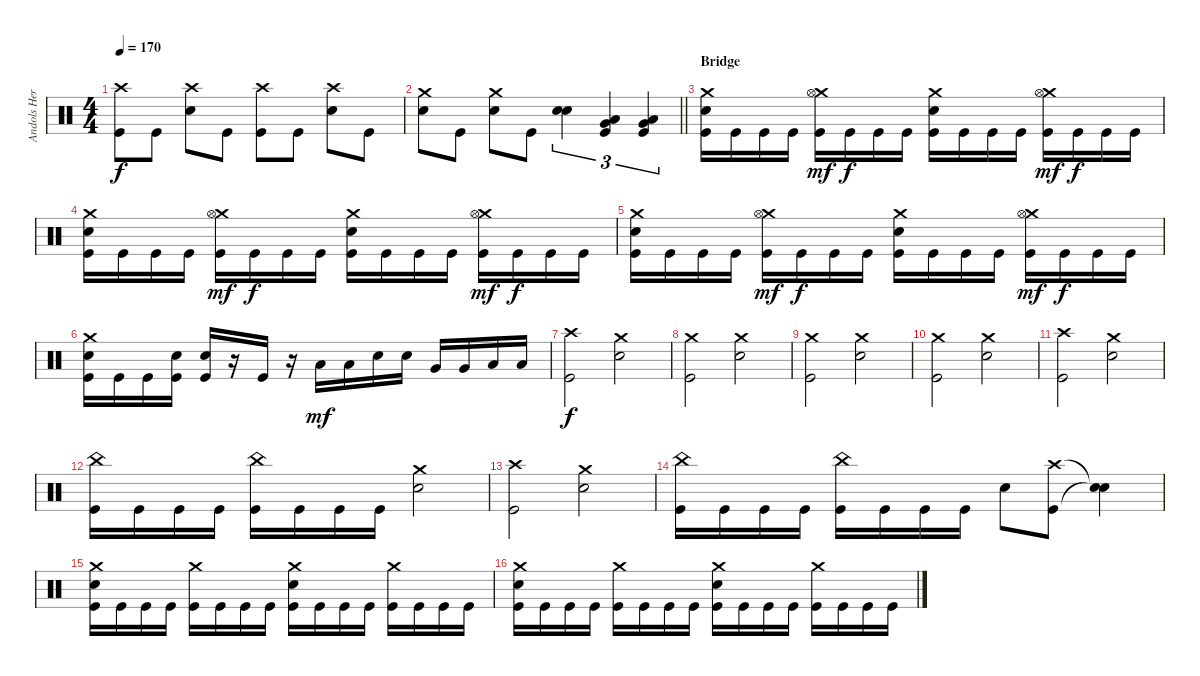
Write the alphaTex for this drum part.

\track ("Andols Herrick" "Andols Her") {instrument percussion}
\staff {score}
\articulation defaults
\ts (4 4)
\tempo 170
\clef neutral
\ks c
("Crash high (hit)" "Kick (hit)").8{dy f} "Kick (hit)".8 ("Crash high (hit)" "Electric Snare (hit)").8 "Kick (hit)".8 ("Crash high (hit)" "Kick (hit)").8 "Kick (hit)".8 ("Crash high (hit)" "Electric Snare (hit)").8 "Kick (hit)".8 |
\barLineRight lightlight
("Crash medium (hit)" "Electric Snare (hit)").8 "Kick (hit)".8 ("Crash medium (hit)" "Electric Snare (hit)").8 "Kick (hit)".8 ("Electric Snare (hit)" "Electric Snare (hit)").4{tu (3 2)} ("Low Tom (hit)" "Very Low Tom (hit)" "Kick (hit)").4{tu (3 2)} ("Very Low Tom (hit)" "Low Floor Tom (hit)" "Kick (hit)").4{tu (3 2)} |
\section ("" "Bridge")
("Crash medium (hit)" "Electric Snare (hit)" "Kick (hit)").16 "Kick (hit)".16 "Kick (hit)".16 "Kick (hit)".16 ("Crash medium (hit)" "Hi-Hat (open)" "Kick (hit)").16{dy mf} "Kick (hit)".16{dy f} "Kick (hit)".16 "Kick (hit)".16 ("Crash medium (hit)" "Electric Snare (hit)" "Kick (hit)").16 "Kick (hit)".16 "Kick (hit)".16 "Kick (hit)".16 ("Crash medium (hit)" "Hi-Hat (open)" "Kick (hit)").16{dy mf} "Kick (hit)".16{dy f} "Kick (hit)".16 "Kick (hit)".16 |
("Crash medium (hit)" "Electric Snare (hit)" "Kick (hit)").16 "Kick (hit)".16 "Kick (hit)".16 "Kick (hit)".16 ("Crash medium (hit)" "Hi-Hat (open)" "Kick (hit)").16{dy mf} "Kick (hit)".16{dy f} "Kick (hit)".16 "Kick (hit)".16 ("Crash medium (hit)" "Electric Snare (hit)" "Kick (hit)").16 "Kick (hit)".16 "Kick (hit)".16 "Kick (hit)".16 ("Crash medium (hit)" "Hi-Hat (open)" "Kick (hit)").16{dy mf} "Kick (hit)".16{dy f} "Kick (hit)".16 "Kick (hit)".16 |
("Crash medium (hit)" "Electric Snare (hit)" "Kick (hit)").16 "Kick (hit)".16 "Kick (hit)".16 "Kick (hit)".16 ("Crash medium (hit)" "Hi-Hat (open)" "Kick (hit)").16{dy mf} "Kick (hit)".16{dy f} "Kick (hit)".16 "Kick (hit)".16 ("Crash medium (hit)" "Electric Snare (hit)" "Kick (hit)").16 "Kick (hit)".16 "Kick (hit)".16 "Kick (hit)".16 ("Crash medium (hit)" "Hi-Hat (open)" "Kick (hit)").16{dy mf} "Kick (hit)".16{dy f} "Kick (hit)".16 "Kick (hit)".16 |
("Crash medium (hit)" "Electric Snare (hit)" "Kick (hit)").16 "Kick (hit)".16 "Kick (hit)".16 ("Electric Snare (hit)" "Kick (hit)").16 ("Electric Snare (hit)" "Kick (hit)").16 r.16 "Kick (hit)".16 r.16 "Low Tom (hit)".16{dy mf} "Low Tom (hit)".16 "Electric Snare (hit)".16 "Electric Snare (hit)".16 "Very Low Tom (hit)".16 "Very Low Tom (hit)".16 "Low Floor Tom (hit)".16 "Low Floor Tom (hit)".16 |
("Crash high (hit)" "Kick (hit)").2{dy f} ("Crash medium (hit)" "Electric Snare (hit)").2 |
("Crash medium (hit)" "Kick (hit)").2 ("Crash medium (hit)" "Electric Snare (hit)").2 |
("Crash medium (hit)" "Kick (hit)").2 ("Crash medium (hit)" "Electric Snare (hit)").2 |
("Crash medium (hit)" "Kick (hit)").2 ("Crash medium (hit)" "Electric Snare (hit)").2 |
("Crash high (hit)" "Kick (hit)").2 ("Crash medium (hit)" "Electric Snare (hit)").2 |
("China (hit)" "Kick (hit)").16 "Kick (hit)".16 "Kick (hit)".16 "Kick (hit)".16 ("China (hit)" "Kick (hit)").16 "Kick (hit)".16 "Kick (hit)".16 "Kick (hit)".16 ("Crash medium (hit)" "Electric Snare (hit)").2 |
("Crash high (hit)" "Kick (hit)").2 ("Crash medium (hit)" "Electric Snare (hit)").2 |
("China (hit)" "Kick (hit)").16 "Kick (hit)".16 "Kick (hit)".16 "Kick (hit)".16 ("China (hit)" "Kick (hit)").16 "Kick (hit)".16 "Kick (hit)".16 "Kick (hit)".16 "Electric Snare (hit)".8 ("Crash high (hit)" "Kick (hit)").8 ("Snare (hit)"{t} "Snare (hit)"{t}).4 |
("Crash medium (hit)" "Electric Snare (hit)" "Kick (hit)").16 "Kick (hit)".16 "Kick (hit)".16 "Kick (hit)".16 ("Crash medium (hit)" "Kick (hit)").16 "Kick (hit)".16 "Kick (hit)".16 "Kick (hit)".16 ("Crash medium (hit)" "Electric Snare (hit)" "Kick (hit)").16 "Kick (hit)".16 "Kick (hit)".16 "Kick (hit)".16 ("Crash medium (hit)" "Kick (hit)").16 "Kick (hit)".16 "Kick (hit)".16 "Kick (hit)".16 |
("Crash medium (hit)" "Electric Snare (hit)" "Kick (hit)").16 "Kick (hit)".16 "Kick (hit)".16 "Kick (hit)".16 ("Crash medium (hit)" "Kick (hit)").16 "Kick (hit)".16 "Kick (hit)".16 "Kick (hit)".16 ("Crash medium (hit)" "Electric Snare (hit)" "Kick (hit)").16 "Kick (hit)".16 "Kick (hit)".16 "Kick (hit)".16 ("Crash medium (hit)" "Kick (hit)").16 "Kick (hit)".16 "Kick (hit)".16 "Kick (hit)".16
